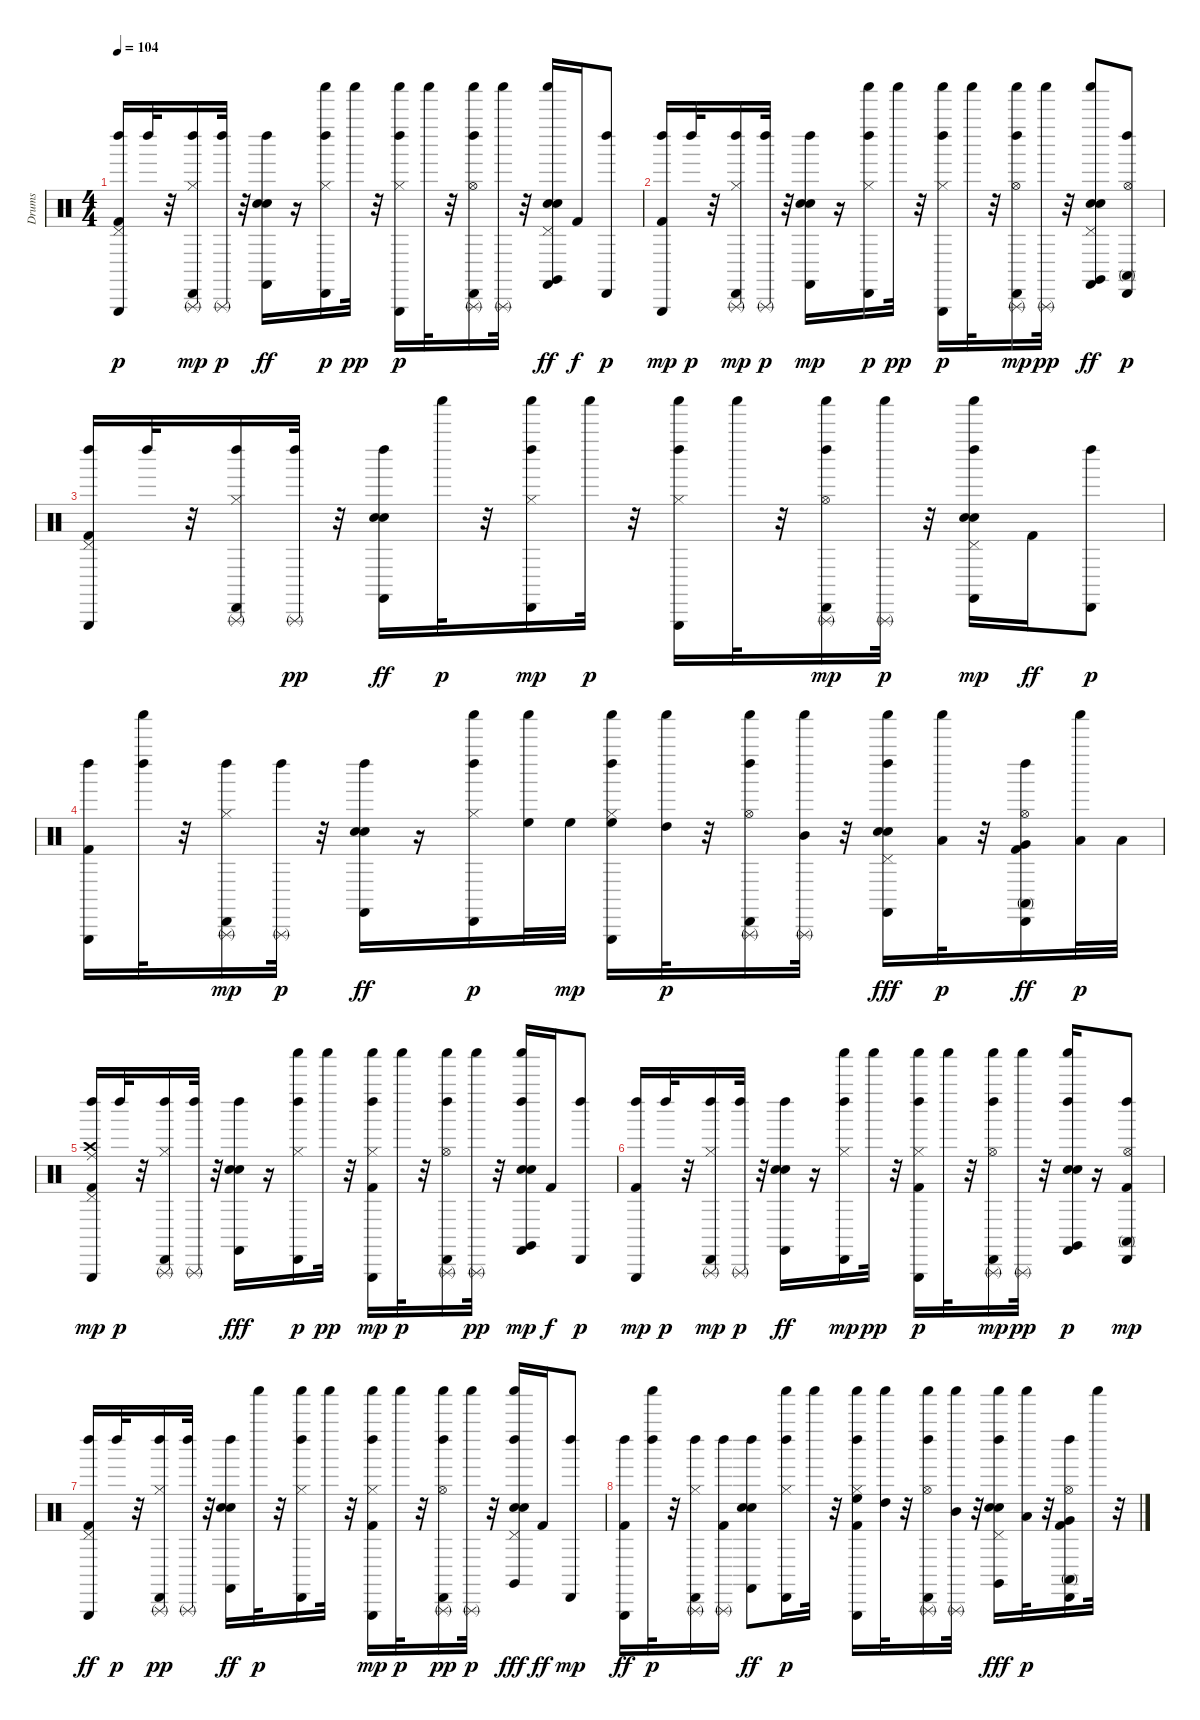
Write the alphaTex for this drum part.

\track ("Drums" "Drums") {instrument percussion}
\staff {score}
\articulation defaults
\ts (4 4)
\tempo 104
\clef neutral
\ks c
("Triangle (hit)" "Kick (hit) 2" "Left Maraca (hit)" "Pedal Hi-Hat (hit)").16{dy p} "Left Maraca (hit)".32 r.32 ("Left Maraca (hit)" "Hi-Hat (closed)" "Triangle (rnute)" "Cabasa (hit)").16{dy mp} ("Triangle (rnute)" "Left Maraca (hit)").32{dy p} r.32 ("Left Maraca (hit)" "Electric Snare (hit)" "Hand Clap (hit)" "Castanets (hit)").16{dy ff} r.16 ("Shaker (hit)" "Hi-Hat (closed)" "Cabasa (hit)" "Left Maraca (hit)").16{dy p} "Shaker (hit)".32{dy pp} r.32 ("Left Maraca (hit)" "Shaker (hit)" "Triangle (hit)" "Hi-Hat (closed)").16{dy p} "Shaker (hit)".32 r.32 ("Cabasa (hit)" "Shaker (hit)" "Triangle (rnute)" "Hi-Hat (open)" "Left Maraca (hit)").16 ("Triangle (rnute)" "Shaker (hit)").32 r.32 ("Pedal Hi-Hat (hit)" "Hand Clap (hit)" "Shaker (hit)" "Castanets (hit)" "Electric Snare (hit)" "Claves (hit)").16{dy ff} "Kick (hit) 2".16{dy f} ("Cabasa (hit)" "Left Maraca (hit)").8{dy p} |
("Left Maraca (hit)" "Triangle (hit)" "Kick (hit) 2").16{dy mp} "Left Maraca (hit)".32{dy p} r.32 ("Left Maraca (hit)" "Triangle (rnute)" "Hi-Hat (closed)" "Cabasa (hit)").16{dy mp} ("Triangle (rnute)" "Left Maraca (hit)").32{dy p} r.32 ("Castanets (hit)" "Hand Clap (hit)" "Left Maraca (hit)" "Electric Snare (hit)").16{dy mp} r.16 ("Left Maraca (hit)" "Cabasa (hit)" "Hi-Hat (closed)" "Shaker (hit)").16{dy p} "Shaker (hit)".32{dy pp} r.32 ("Shaker (hit)" "Triangle (hit)" "Left Maraca (hit)" "Hi-Hat (closed)").16{dy p} "Shaker (hit)".32 r.32 ("Hi-Hat (open)" "Left Maraca (hit)" "Shaker (hit)" "Triangle (rnute)" "Cabasa (hit)").16{dy mp} ("Shaker (hit)" "Triangle (rnute)").32{dy pp} r.32 ("Electric Snare (hit)" "Shaker (hit)" "Claves (hit)" "Pedal Hi-Hat (hit)" "Hand Clap (hit)" "Castanets (hit)").8{dy ff} ("Cabasa (hit)" "Conga high (mute)" "Hi-Hat (open)" "Left Maraca (hit)").8{dy p} |
("Pedal Hi-Hat (hit)" "Triangle (hit)" "Kick (hit) 2" "Left Maraca (hit)").16 "Left Maraca (hit)".32 r.32 ("Cabasa (hit)" "Triangle (rnute)" "Left Maraca (hit)" "Hi-Hat (closed)").16 ("Left Maraca (hit)" "Triangle (rnute)").32{dy pp} r.32 ("Hand Clap (hit)" "Electric Snare (hit)" "Left Maraca (hit)" "Castanets (hit)").16{dy ff} "Shaker (hit)".32{dy p} r.32 ("Shaker (hit)" "Left Maraca (hit)" "Hi-Hat (closed)" "Cabasa (hit)").16{dy mp} "Shaker (hit)".32{dy p} r.32 ("Left Maraca (hit)" "Triangle (hit)" "Hi-Hat (closed)" "Shaker (hit)").16 "Shaker (hit)".32 r.32 ("Shaker (hit)" "Triangle (rnute)" "Left Maraca (hit)" "Hi-Hat (open)" "Cabasa (hit)").16{dy mp} ("Triangle (rnute)" "Shaker (hit)").32{dy p} r.32 ("Shaker (hit)" "Castanets (hit)" "Left Maraca (hit)" "Hand Clap (hit)" "Pedal Hi-Hat (hit)" "Electric Snare (hit)").16{dy mp} "Kick (hit) 2".16{dy ff} ("Cabasa (hit)" "Left Maraca (hit)").8{dy p} |
("Kick (hit) 2" "Triangle (hit)" "Left Maraca (hit)").16 ("Shaker (hit)" "Left Maraca (hit)").32 r.32 ("Triangle (rnute)" "Left Maraca (hit)" "Hi-Hat (closed)" "Cabasa (hit)").16{dy mp} ("Triangle (rnute)" "Left Maraca (hit)").32{dy p} r.32 ("Left Maraca (hit)" "Electric Snare (hit)" "Hand Clap (hit)" "Castanets (hit)").16{dy ff} r.16 ("Hi-Hat (closed)" "Cabasa (hit)" "Left Maraca (hit)" "Shaker (hit)").16{dy p} ("High Floor Tom (hit)" "Shaker (hit)").32 "High Floor Tom (hit)".32{dy mp} ("Hi-Hat (closed)" "Shaker (hit)" "Left Maraca (hit)" "High Floor Tom (hit)" "Triangle (hit)").16 ("Shaker (hit)" "High Tom (hit)").32{dy p} r.32 ("Left Maraca (hit)" "Cabasa (hit)" "Triangle (rnute)" "Shaker (hit)" "Hi-Hat (open)").16 ("Mid Tom (hit)" "Triangle (rnute)" "Shaker (hit)").32 r.32 ("Left Maraca (hit)" "Electric Snare (hit)" "Castanets (hit)" "Shaker (hit)" "Pedal Hi-Hat (hit)" "Hand Clap (hit)").16{dy fff} ("Low Tom (hit)" "Shaker (hit)").32{dy p} r.32 ("Cabasa (hit)" "Very Low Tom (hit)" "Conga high (mute)" "Left Maraca (hit)" "Hi-Hat (open)" "Kick (hit) 2").16{dy ff} ("Shaker (hit)" "Low Floor Tom (hit)").32{dy p} "Low Floor Tom (hit)".32 |
("Pedal Hi-Hat (hit)" "Left Maraca (hit)" "Ride (middle)" "Crash high (hit)" "Triangle (hit)" "Kick (hit) 2").16{dy mp} "Left Maraca (hit)".32{dy p} r.32 ("Cabasa (hit)" "Triangle (rnute)" "Left Maraca (hit)" "Hi-Hat (closed)").16 ("Triangle (rnute)" "Left Maraca (hit)").32 r.32 ("Left Maraca (hit)" "Electric Snare (hit)" "Castanets (hit)" "Hand Clap (hit)").16{dy fff} r.16 ("Shaker (hit)" "Left Maraca (hit)" "Cabasa (hit)" "Hi-Hat (closed)").16{dy p} "Shaker (hit)".32{dy pp} r.32 ("Kick (hit) 2" "Hi-Hat (closed)" "Shaker (hit)" "Left Maraca (hit)" "Triangle (hit)").16{dy mp} "Shaker (hit)".32{dy p} r.32 ("Shaker (hit)" "Left Maraca (hit)" "Cabasa (hit)" "Triangle (rnute)" "Hi-Hat (open)").16 ("Shaker (hit)" "Triangle (rnute)").32{dy pp} r.32 ("Left Maraca (hit)" "Shaker (hit)" "Hand Clap (hit)" "Claves (hit)" "Castanets (hit)" "Electric Snare (hit)").16{dy mp} "Kick (hit) 2".16{dy f} ("Cabasa (hit)" "Left Maraca (hit)").8{dy p} |
("Left Maraca (hit)" "Kick (hit) 2" "Triangle (hit)").16{dy mp} "Left Maraca (hit)".32{dy p} r.32 ("Hi-Hat (closed)" "Left Maraca (hit)" "Triangle (rnute)" "Cabasa (hit)").16{dy mp} ("Triangle (rnute)" "Left Maraca (hit)").32{dy p} r.32 ("Hand Clap (hit)" "Electric Snare (hit)" "Left Maraca (hit)" "Castanets (hit)").16{dy ff} r.16 ("Hi-Hat (closed)" "Shaker (hit)" "Left Maraca (hit)" "Cabasa (hit)").16{dy mp} "Shaker (hit)".32{dy pp} r.32 ("Left Maraca (hit)" "Kick (hit) 2" "Shaker (hit)" "Triangle (hit)" "Hi-Hat (closed)").16{dy p} "Shaker (hit)".32 r.32 ("Triangle (rnute)" "Left Maraca (hit)" "Hi-Hat (open)" "Shaker (hit)" "Cabasa (hit)").16{dy mp} ("Shaker (hit)" "Triangle (rnute)").32{dy pp} r.32 ("Left Maraca (hit)" "Electric Snare (hit)" "Hand Clap (hit)" "Claves (hit)" "Castanets (hit)" "Shaker (hit)").16{dy p} r.16 ("Hi-Hat (open)" "Left Maraca (hit)" "Conga high (mute)" "Kick (hit) 2" "Cabasa (hit)").8{dy mp} |
("Triangle (hit)" "Pedal Hi-Hat (hit)" "Left Maraca (hit)" "Kick (hit) 2").16{dy ff} "Left Maraca (hit)".32{dy p} r.32 ("Left Maraca (hit)" "Hi-Hat (closed)" "Cabasa (hit)" "Triangle (rnute)").16{dy pp} ("Left Maraca (hit)" "Triangle (rnute)").32 r.32 ("Hand Clap (hit)" "Electric Snare (hit)" "Left Maraca (hit)" "Castanets (hit)").16{dy ff} "Shaker (hit)".32{dy p} r.32 ("Cabasa (hit)" "Shaker (hit)" "Hi-Hat (closed)" "Left Maraca (hit)").16 "Shaker (hit)".32 r.32 ("Left Maraca (hit)" "Shaker (hit)" "Hi-Hat (closed)" "Kick (hit) 2" "Triangle (hit)").16{dy mp} "Shaker (hit)".32{dy p} r.32 ("Hi-Hat (open)" "Cabasa (hit)" "Left Maraca (hit)" "Shaker (hit)" "Triangle (rnute)").16{dy pp} ("Triangle (rnute)" "Shaker (hit)").32{dy p} r.32 ("Claves (hit)" "Pedal Hi-Hat (hit)" "Shaker (hit)" "Electric Snare (hit)" "Left Maraca (hit)" "Hand Clap (hit)").16{dy fff} "Kick (hit) 2".16{dy ff} ("Left Maraca (hit)" "Cabasa (hit)").8{dy mp} |
("Triangle (hit)" "Left Maraca (hit)" "Kick (hit) 2").16{dy ff} ("Left Maraca (hit)" "Shaker (hit)").32{dy p} r.32 ("Left Maraca (hit)" "Cabasa (hit)" "Triangle (rnute)" "Hi-Hat (closed)").16 ("Triangle (rnute)" "Kick (hit) 2" "Left Maraca (hit)").16 ("Hand Clap (hit)" "Left Maraca (hit)" "Electric Snare (hit)" "Castanets (hit)").8{dy ff} ("Shaker (hit)" "Hi-Hat (closed)" "Cabasa (hit)" "Left Maraca (hit)").16{dy p} "Shaker (hit)".32 r.32 ("Shaker (hit)" "Triangle (hit)" "High Floor Tom (hit)" "Hi-Hat (closed)" "Left Maraca (hit)" "Kick (hit) 2").16 ("High Tom (hit)" "Shaker (hit)").32 r.32 ("Triangle (rnute)" "Shaker (hit)" "Cabasa (hit)" "Hi-Hat (open)" "Left Maraca (hit)").16 ("Mid Tom (hit)" "Triangle (rnute)" "Shaker (hit)").32 r.32 ("Claves (hit)" "Shaker (hit)" "Left Maraca (hit)" "Pedal Hi-Hat (hit)" "Electric Snare (hit)" "Hand Clap (hit)").16{dy fff} ("Low Tom (hit)" "Shaker (hit)").32{dy p} r.32 ("Left Maraca (hit)" "Conga high (mute)" "Cabasa (hit)" "Very Low Tom (hit)" "Kick (hit) 2" "Hi-Hat (open)").16 "Shaker (hit)".32 r.32
